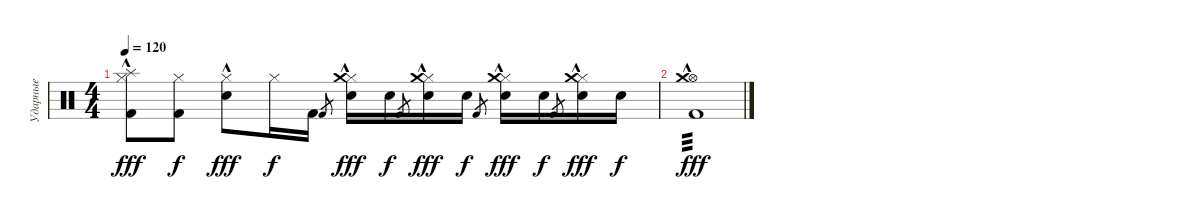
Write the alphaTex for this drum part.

\track ("Ударные" "Ударные") {instrument percussion}
\staff {score}
\articulation defaults
\ts (4 4)
\tempo 120
\clef neutral
\ks c
("Hi-Hat (closed)" "Splash (hit)" "Kick (hit) 2"{hac}).8{dy fff} ("Hi-Hat (closed)" "Kick (hit) 2").8{dy f} ("Hi-Hat (closed)" "Snare (hit) 2"{hac}).8{dy fff} "Hi-Hat (closed)".16{dy f} "Kick (hit) 2".16 "Kick (hit) 2".8{gr} ("Hi-Hat (closed)" "Crash medium (hit)" "Electric Snare (hit)"{hac}).16{dy fff} "Snare (hit) 2".16{dy f} "Kick (hit) 2".8{gr} ("Hi-Hat (closed)" "Crash medium (hit)" "Electric Snare (hit)"{hac}).16{dy fff} "Snare (hit) 2".16{dy f} "Kick (hit) 2".8{gr} ("Hi-Hat (closed)" "Crash medium (hit)" "Electric Snare (hit)"{hac}).16{dy fff} "Snare (hit) 2".16{dy f} "Kick (hit) 2".8{gr} ("Hi-Hat (closed)" "Crash medium (hit)" "Electric Snare (hit)"{hac}).16{dy fff} "Snare (hit) 2".16{dy f} |
("Hi-Hat (open)" "Crash medium (hit)" "Kick (hit) 2"{hac}).1{tp 3 dy fff}
